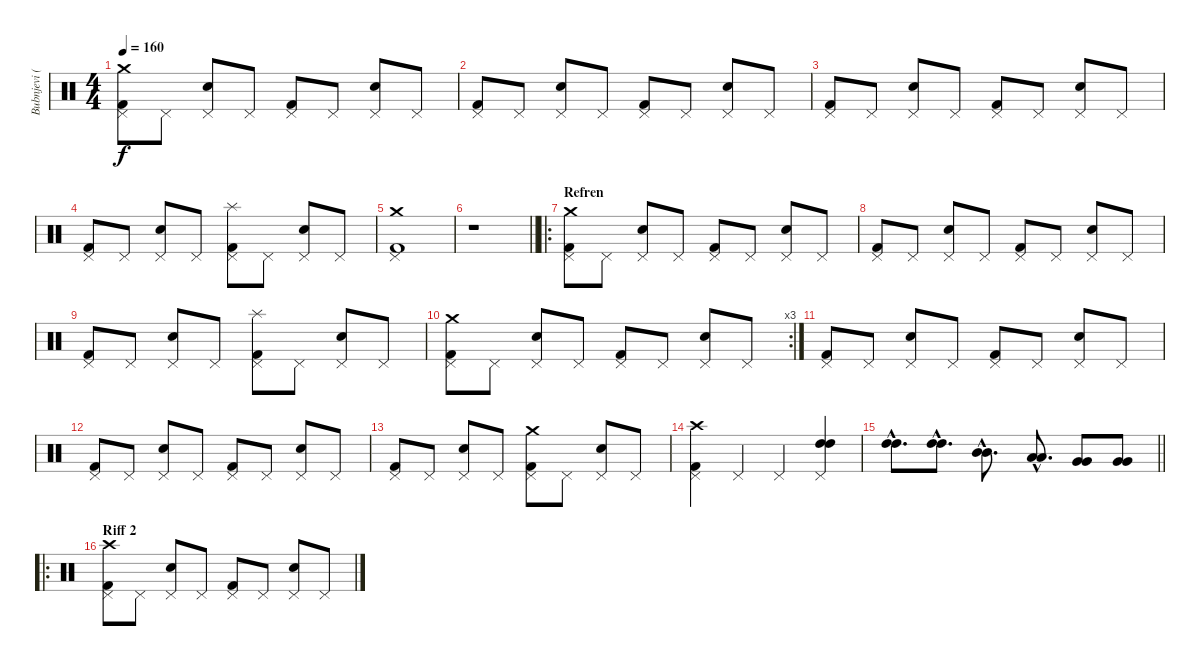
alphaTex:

\track ("Bubnjevi (Nasko Budimic)" "Bubnjevi (") {instrument percussion}
\staff {score}
\articulation defaults
\ts (4 4)
\tempo 160
\clef neutral
\ks c
("Crash medium (hit)" "Pedal Hi-Hat (hit)" "Kick (hit) 2").8{dy f} "Pedal Hi-Hat (hit)".8 ("Pedal Hi-Hat (hit)" "Snare (hit) 2").8 "Pedal Hi-Hat (hit)".8 ("Pedal Hi-Hat (hit)" "Kick (hit) 2").8 "Pedal Hi-Hat (hit)".8 ("Pedal Hi-Hat (hit)" "Snare (hit) 2").8 "Pedal Hi-Hat (hit)".8 |
("Pedal Hi-Hat (hit)" "Kick (hit) 2").8 "Pedal Hi-Hat (hit)".8 ("Pedal Hi-Hat (hit)" "Snare (hit) 2").8 "Pedal Hi-Hat (hit)".8 ("Pedal Hi-Hat (hit)" "Kick (hit) 2").8 "Pedal Hi-Hat (hit)".8 ("Pedal Hi-Hat (hit)" "Snare (hit) 2").8 "Pedal Hi-Hat (hit)".8 |
("Pedal Hi-Hat (hit)" "Kick (hit) 2").8 "Pedal Hi-Hat (hit)".8 ("Pedal Hi-Hat (hit)" "Snare (hit) 2").8 "Pedal Hi-Hat (hit)".8 ("Pedal Hi-Hat (hit)" "Kick (hit) 2").8 "Pedal Hi-Hat (hit)".8 ("Pedal Hi-Hat (hit)" "Snare (hit) 2").8 "Pedal Hi-Hat (hit)".8 |
("Pedal Hi-Hat (hit)" "Kick (hit) 2").8 "Pedal Hi-Hat (hit)".8 ("Pedal Hi-Hat (hit)" "Snare (hit) 2").8 "Pedal Hi-Hat (hit)".8 ("Splash (hit)" "Pedal Hi-Hat (hit)" "Kick (hit) 2").8 "Pedal Hi-Hat (hit)".8 ("Pedal Hi-Hat (hit)" "Snare (hit) 2").8 "Pedal Hi-Hat (hit)".8 |
("Crash medium (hit)" "Pedal Hi-Hat (hit)" "Kick (hit) 2").1 |
\barLineRight lightlight
r.1 |
\ro
\section ("" "Refren")
("Crash medium (hit)" "Pedal Hi-Hat (hit)" "Kick (hit) 2").8 "Pedal Hi-Hat (hit)".8 ("Pedal Hi-Hat (hit)" "Snare (hit) 2").8 "Pedal Hi-Hat (hit)".8 ("Pedal Hi-Hat (hit)" "Kick (hit) 2").8 "Pedal Hi-Hat (hit)".8 ("Pedal Hi-Hat (hit)" "Snare (hit) 2").8 "Pedal Hi-Hat (hit)".8 |
("Pedal Hi-Hat (hit)" "Kick (hit) 2").8 "Pedal Hi-Hat (hit)".8 ("Pedal Hi-Hat (hit)" "Snare (hit) 2").8 "Pedal Hi-Hat (hit)".8 ("Pedal Hi-Hat (hit)" "Kick (hit) 2").8 "Pedal Hi-Hat (hit)".8 ("Pedal Hi-Hat (hit)" "Snare (hit) 2").8 "Pedal Hi-Hat (hit)".8 |
("Pedal Hi-Hat (hit)" "Kick (hit) 2").8 "Pedal Hi-Hat (hit)".8 ("Pedal Hi-Hat (hit)" "Snare (hit) 2").8 "Pedal Hi-Hat (hit)".8 ("Splash (hit)" "Pedal Hi-Hat (hit)" "Kick (hit) 2").8 "Pedal Hi-Hat (hit)".8 ("Pedal Hi-Hat (hit)" "Snare (hit) 2").8 "Pedal Hi-Hat (hit)".8 |
\rc 3
("Crash medium (hit)" "Pedal Hi-Hat (hit)" "Kick (hit) 2").8 "Pedal Hi-Hat (hit)".8 ("Pedal Hi-Hat (hit)" "Snare (hit) 2").8 "Pedal Hi-Hat (hit)".8 ("Pedal Hi-Hat (hit)" "Kick (hit) 2").8 "Pedal Hi-Hat (hit)".8 ("Pedal Hi-Hat (hit)" "Snare (hit) 2").8 "Pedal Hi-Hat (hit)".8 |
("Pedal Hi-Hat (hit)" "Kick (hit) 2").8 "Pedal Hi-Hat (hit)".8 ("Pedal Hi-Hat (hit)" "Snare (hit) 2").8 "Pedal Hi-Hat (hit)".8 ("Pedal Hi-Hat (hit)" "Kick (hit) 2").8 "Pedal Hi-Hat (hit)".8 ("Pedal Hi-Hat (hit)" "Snare (hit) 2").8 "Pedal Hi-Hat (hit)".8 |
("Pedal Hi-Hat (hit)" "Kick (hit) 2").8 "Pedal Hi-Hat (hit)".8 ("Pedal Hi-Hat (hit)" "Snare (hit) 2").8 "Pedal Hi-Hat (hit)".8 ("Pedal Hi-Hat (hit)" "Kick (hit) 2").8 "Pedal Hi-Hat (hit)".8 ("Pedal Hi-Hat (hit)" "Snare (hit) 2").8 "Pedal Hi-Hat (hit)".8 |
("Pedal Hi-Hat (hit)" "Kick (hit) 2").8 "Pedal Hi-Hat (hit)".8 ("Pedal Hi-Hat (hit)" "Snare (hit) 2").8 "Pedal Hi-Hat (hit)".8 ("Crash medium (hit)" "Pedal Hi-Hat (hit)" "Kick (hit) 2").8 "Pedal Hi-Hat (hit)".8 ("Pedal Hi-Hat (hit)" "Snare (hit) 2").8 "Pedal Hi-Hat (hit)".8 |
("Crash high (hit)" "Pedal Hi-Hat (hit)" "Kick (hit) 2").4 "Pedal Hi-Hat (hit)".4 "Pedal Hi-Hat (hit)".4 ("High Tom (hit)" "High Tom (hit)" "Pedal Hi-Hat (hit)").4 |
\barLineRight lightlight
("High Tom (hit)"{hac} "High Tom (hit)"{hac}).8{d} ("High Tom (hit)"{hac} "High Tom (hit)"{hac}).8{d} ("Mid Tom (hit)"{hac} "Mid Tom (hit)"{hac}).8{d} ("Low Tom (hit)"{hac} "Low Tom (hit)"{hac}).8{d} ("Very Low Tom (hit)" "Very Low Tom (hit)").8 ("Very Low Tom (hit)" "Very Low Tom (hit)").8 |
\ro
\section ("" "Riff 2")
("Crash high (hit)" "Pedal Hi-Hat (hit)" "Kick (hit) 2").8 "Pedal Hi-Hat (hit)".8 ("Pedal Hi-Hat (hit)" "Snare (hit) 2").8 "Pedal Hi-Hat (hit)".8 ("Pedal Hi-Hat (hit)" "Kick (hit) 2").8 "Pedal Hi-Hat (hit)".8 ("Pedal Hi-Hat (hit)" "Snare (hit) 2").8 "Pedal Hi-Hat (hit)".8
